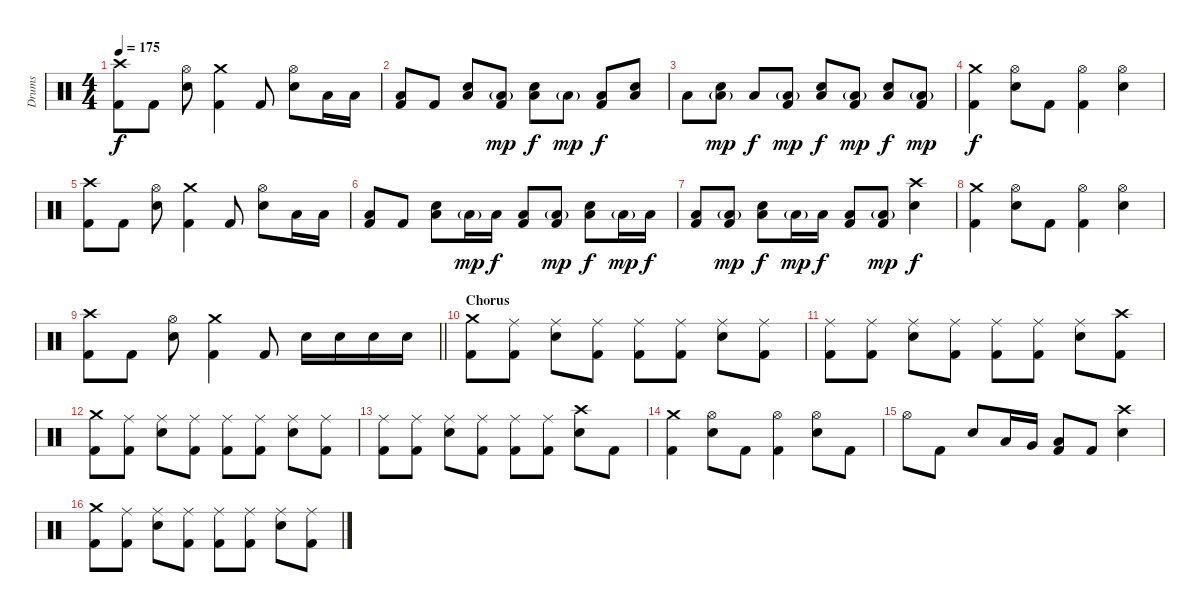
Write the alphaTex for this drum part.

\track ("Drums" "Drums") {instrument percussion}
\staff {score}
\articulation defaults
\ts (4 4)
\tempo 175
\clef neutral
\ks c
("Crash high (hit)" "Kick (hit) 2").8{dy f} "Kick (hit) 2".8 ("Hi-Hat (open)" "Electric Snare (hit)").8 ("Crash medium (hit)" "Kick (hit) 2").4 "Kick (hit) 2".8 ("Hi-Hat (open)" "Electric Snare (hit)").8 "Low Tom (hit)".16 "Low Tom (hit)".16 |
("Low Floor Tom (hit)" "Kick (hit) 2").8 "Kick (hit) 2".8 ("Low Floor Tom (hit)" "Electric Snare (hit)").8 ("Low Floor Tom (hit)"{g} "Kick (hit) 2").8{dy mp} ("Low Floor Tom (hit)" "Electric Snare (hit)").8{dy f} "Low Floor Tom (hit)"{g}.8{dy mp} ("Low Floor Tom (hit)" "Kick (hit) 2").8{dy f} ("Low Floor Tom (hit)" "Electric Snare (hit)").8 |
"Low Floor Tom (hit)".8 ("Low Floor Tom (hit)"{g} "Electric Snare (hit)").8{dy mp} "Low Floor Tom (hit)".8{dy f} ("Low Floor Tom (hit)"{g} "Kick (hit) 2").8{dy mp} ("Low Floor Tom (hit)" "Electric Snare (hit)").8{dy f} ("Low Floor Tom (hit)"{g} "Kick (hit) 2").8{dy mp} ("Low Floor Tom (hit)" "Electric Snare (hit)").8{dy f} ("Low Floor Tom (hit)"{g} "Kick (hit) 2").8{dy mp} |
("Crash medium (hit)" "Kick (hit) 2").4{dy f} ("Hi-Hat (open)" "Electric Snare (hit)").8 "Kick (hit) 2".8 ("Hi-Hat (open)" "Kick (hit) 2").4 ("Hi-Hat (open)" "Electric Snare (hit)").4 |
("Crash high (hit)" "Kick (hit) 2").8 "Kick (hit) 2".8 ("Hi-Hat (open)" "Electric Snare (hit)").8 ("Crash medium (hit)" "Kick (hit) 2").4 "Kick (hit) 2".8 ("Hi-Hat (open)" "Electric Snare (hit)").8 "Low Tom (hit)".16 "Low Tom (hit)".16 |
("Low Floor Tom (hit)" "Kick (hit) 2").8 "Kick (hit) 2".8 ("Low Floor Tom (hit)" "Electric Snare (hit)").8 "Low Floor Tom (hit)"{g}.16{dy mp} "Low Floor Tom (hit)".16{dy f} ("Low Floor Tom (hit)" "Kick (hit) 2").8 ("Low Floor Tom (hit)"{g} "Kick (hit) 2").8{dy mp} ("Low Floor Tom (hit)" "Electric Snare (hit)").8{dy f} "Low Floor Tom (hit)"{g}.16{dy mp} "Low Floor Tom (hit)".16{dy f} |
("Low Floor Tom (hit)" "Kick (hit) 2").8 ("Low Floor Tom (hit)"{g} "Kick (hit) 2").8{dy mp} ("Low Floor Tom (hit)" "Electric Snare (hit)").8{dy f} "Low Floor Tom (hit)"{g}.16{dy mp} "Low Floor Tom (hit)".16{dy f} ("Low Floor Tom (hit)" "Kick (hit) 2").8 ("Low Floor Tom (hit)"{g} "Kick (hit) 2").8{dy mp} ("Crash high (hit)" "Electric Snare (hit)").4{dy f} |
("Crash medium (hit)" "Kick (hit) 2").4 ("Hi-Hat (open)" "Electric Snare (hit)").8 "Kick (hit) 2".8 ("Hi-Hat (open)" "Kick (hit) 2").4 ("Hi-Hat (open)" "Electric Snare (hit)").4 |
\barLineRight lightlight
("Crash high (hit)" "Kick (hit) 2").8 "Kick (hit) 2".8 ("Hi-Hat (open)" "Electric Snare (hit)").8 ("Crash medium (hit)" "Kick (hit) 2").4 "Kick (hit) 2".8 "Electric Snare (hit)".16 "Electric Snare (hit)".16 "Electric Snare (hit)".16 "Electric Snare (hit)".16 |
\section ("" "Chorus")
("Crash medium (hit)" "Kick (hit) 2").8 ("Ride (middle)" "Kick (hit) 2").8 ("Ride (middle)" "Electric Snare (hit)").8 ("Ride (middle)" "Kick (hit) 2").8 ("Ride (middle)" "Kick (hit) 2").8 ("Ride (middle)" "Kick (hit) 2").8 ("Ride (middle)" "Electric Snare (hit)").8 ("Ride (middle)" "Kick (hit) 2").8 |
("Ride (middle)" "Kick (hit) 2").8 ("Ride (middle)" "Kick (hit) 2").8 ("Ride (middle)" "Electric Snare (hit)").8 ("Ride (middle)" "Kick (hit) 2").8 ("Ride (middle)" "Kick (hit) 2").8 ("Ride (middle)" "Kick (hit) 2").8 ("Ride (middle)" "Electric Snare (hit)").8 ("Crash high (hit)" "Kick (hit) 2").8 |
("Crash medium (hit)" "Kick (hit) 2").8 ("Ride (middle)" "Kick (hit) 2").8 ("Ride (middle)" "Electric Snare (hit)").8 ("Ride (middle)" "Kick (hit) 2").8 ("Ride (middle)" "Kick (hit) 2").8 ("Ride (middle)" "Kick (hit) 2").8 ("Ride (middle)" "Electric Snare (hit)").8 ("Ride (middle)" "Kick (hit) 2").8 |
("Ride (middle)" "Kick (hit) 2").8 ("Ride (middle)" "Kick (hit) 2").8 ("Ride (middle)" "Electric Snare (hit)").8 ("Ride (middle)" "Kick (hit) 2").8 ("Ride (middle)" "Kick (hit) 2").8 ("Ride (middle)" "Kick (hit) 2").8 ("Crash high (hit)" "Electric Snare (hit)").8 "Kick (hit) 2".8 |
("Crash medium (hit)" "Kick (hit) 2").4 ("Hi-Hat (open)" "Electric Snare (hit)").8 "Kick (hit) 2".8 ("Hi-Hat (open)" "Kick (hit) 2").4 ("Hi-Hat (open)" "Electric Snare (hit)").8 "Kick (hit) 2".8 |
"Hi-Hat (open)".8 "Kick (hit) 2".8 "Electric Snare (hit)".8 "Low Tom (hit)".16 "Very Low Tom (hit)".16 ("Low Floor Tom (hit)" "Kick (hit) 2").8 "Kick (hit) 2".8 ("Crash high (hit)" "Electric Snare (hit)").4 |
("Crash medium (hit)" "Kick (hit) 2").8 ("Ride (middle)" "Kick (hit) 2").8 ("Ride (middle)" "Electric Snare (hit)").8 ("Ride (middle)" "Kick (hit) 2").8 ("Ride (middle)" "Kick (hit) 2").8 ("Ride (middle)" "Kick (hit) 2").8 ("Ride (middle)" "Electric Snare (hit)").8 ("Ride (middle)" "Kick (hit) 2").8
